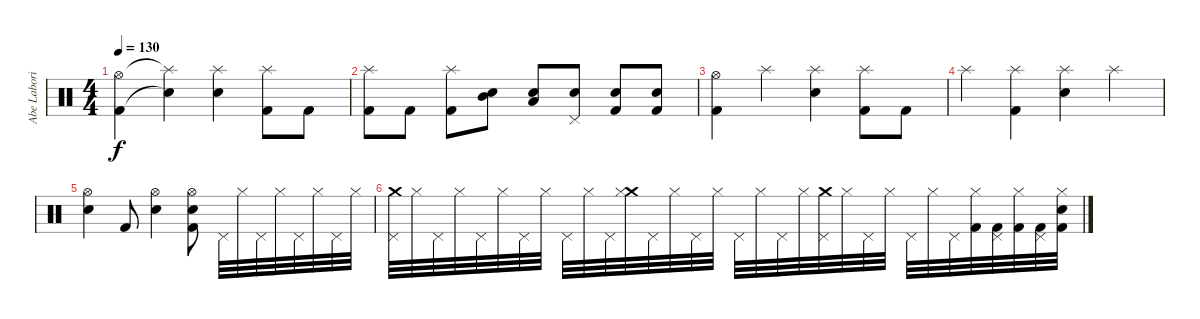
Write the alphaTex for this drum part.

\track ("Abe Laboriel, Jr." "Abe Labori") {instrument percussion}
\staff {score}
\articulation defaults
\ts (4 4)
\tempo 130
\clef neutral
\ks c
("Hi-Hat (open)" "Kick (hit) 2").4{dy f} ("Splash (hit)"{t} "Snare (hit)"{t}).4 ("Splash (hit)" "Snare (hit) 2").4 ("Splash (hit)" "Kick (hit) 2").8 "Kick (hit) 2".8 |
("Splash (hit)" "Kick (hit) 2").8 "Kick (hit) 2".8 ("Splash (hit)" "Kick (hit) 2").8 ("Snare (hit) 2" "Mid Tom (hit)").8 ("Snare (hit) 2" "Low Tom (hit)").8 ("Snare (hit) 2" "Pedal Hi-Hat (hit)").8 ("Snare (hit) 2" "Kick (hit) 2").8 ("Snare (hit) 2" "Kick (hit) 2").8 |
("Hi-Hat (open)" "Kick (hit) 2").4 "Splash (hit)".4 ("Splash (hit)" "Snare (hit) 2").4 ("Splash (hit)" "Kick (hit) 2").8 "Kick (hit) 2".8 |
"Splash (hit)".4 ("Splash (hit)" "Kick (hit) 2").4 ("Splash (hit)" "Snare (hit) 2").4 "Splash (hit)".4 |
("Hi-Hat (open)" "Snare (hit) 2").4 "Kick (hit) 2".8 ("Hi-Hat (open)" "Snare (hit) 2").4 ("Hi-Hat (open)" "Kick (hit) 2" "Snare (hit) 2").8 "Pedal Hi-Hat (hit)".32 "Hi-Hat (closed)".32 "Pedal Hi-Hat (hit)".32 "Hi-Hat (closed)".32 "Pedal Hi-Hat (hit)".32 "Hi-Hat (closed)".32 "Pedal Hi-Hat (hit)".32 "Hi-Hat (closed)".32 |
("Crash medium (hit)" "Pedal Hi-Hat (hit)").32 "Hi-Hat (closed)".32 "Pedal Hi-Hat (hit)".32 "Hi-Hat (closed)".32 "Pedal Hi-Hat (hit)".32 "Hi-Hat (closed)".32 "Pedal Hi-Hat (hit)".32 "Hi-Hat (closed)".32 "Pedal Hi-Hat (hit)".32 "Hi-Hat (closed)".32 "Pedal Hi-Hat (hit)".32 ("Crash medium (hit)" "Hi-Hat (closed)").32 "Pedal Hi-Hat (hit)".32 "Hi-Hat (closed)".32 "Pedal Hi-Hat (hit)".32 "Hi-Hat (closed)".32 "Pedal Hi-Hat (hit)".32 "Hi-Hat (closed)".32 "Pedal Hi-Hat (hit)".32 "Hi-Hat (closed)".32 ("Crash medium (hit)" "Pedal Hi-Hat (hit)").32 "Hi-Hat (closed)".32 "Pedal Hi-Hat (hit)".32 "Hi-Hat (closed)".32 "Pedal Hi-Hat (hit)".32 "Hi-Hat (closed)".32 "Pedal Hi-Hat (hit)".32 ("Hi-Hat (closed)" "Kick (hit) 2").32 ("Pedal Hi-Hat (hit)" "Kick (hit) 2").32 ("Hi-Hat (closed)" "Kick (hit) 2").32 ("Pedal Hi-Hat (hit)" "Kick (hit) 2").32 ("Hi-Hat (closed)" "Kick (hit) 2" "Snare (hit) 2").32
